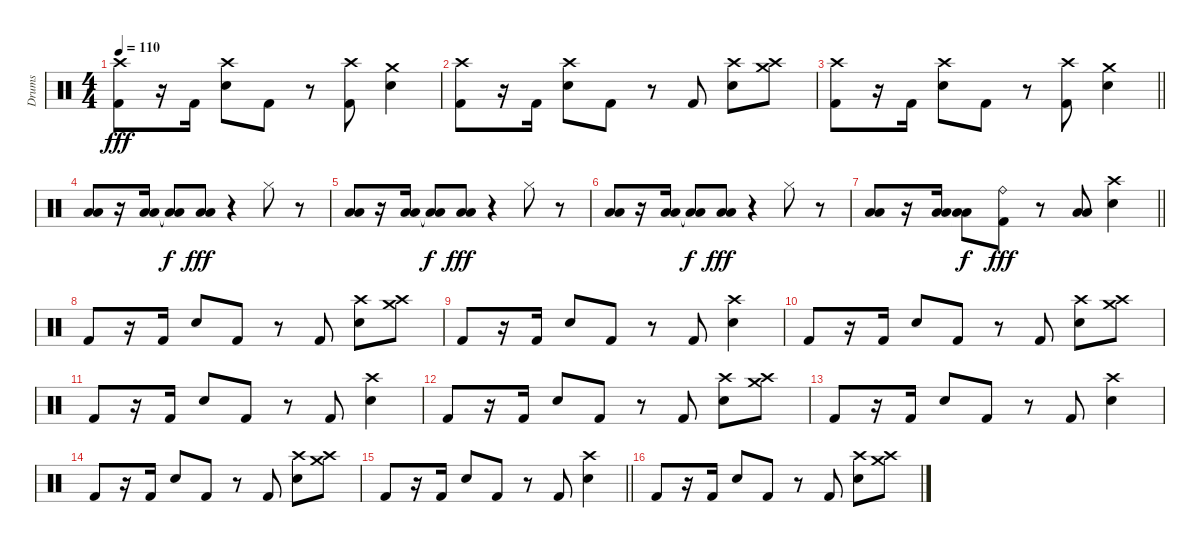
\track ("Drums" "Drums") {instrument percussion}
\staff {score}
\articulation defaults
\ts (4 4)
\tempo 110
\clef neutral
\ks c
("Crash high (hit)" "Kick (hit) 2").8{dy fff} r.16 "Kick (hit) 2".16 ("Crash high (hit)" "Electric Snare (hit)").8 "Kick (hit) 2".8 r.8 ("Crash high (hit)" "Kick (hit) 2").8 ("Crash medium (hit)" "Electric Snare (hit)").4 |
("Crash high (hit)" "Kick (hit) 2").8 r.16 "Kick (hit) 2".16 ("Crash high (hit)" "Electric Snare (hit)").8 "Kick (hit) 2".8 r.8 "Kick (hit) 2".8 ("Crash high (hit)" "Electric Snare (hit)").8 ("Crash high (hit)" "Crash medium (hit)").8 |
\barLineRight lightlight
("Crash high (hit)" "Kick (hit) 2").8 r.16 "Kick (hit) 2".16 ("Crash high (hit)" "Electric Snare (hit)").8 "Kick (hit) 2".8 r.8 ("Crash high (hit)" "Kick (hit) 2").8 ("Crash medium (hit)" "Electric Snare (hit)").4 |
("Low Tom (hit)" "Low Floor Tom (hit)").8 r.16 ("Low Tom (hit)" "Low Floor Tom (hit)").16 ("Low Tom (hit)"{t} "Low Floor Tom (hit)"{t}).8{dy f} ("Low Tom (hit)" "Low Floor Tom (hit)").8{dy fff} r.4 "Hi-Hat (closed)".8 r.8 |
("Low Tom (hit)" "Low Floor Tom (hit)").8 r.16 ("Low Tom (hit)" "Low Floor Tom (hit)").16 ("Low Tom (hit)"{t} "Low Floor Tom (hit)"{t}).8{dy f} ("Low Tom (hit)" "Low Floor Tom (hit)").8{dy fff} r.4 "Hi-Hat (closed)".8 r.8 |
("Low Tom (hit)" "Low Floor Tom (hit)").8 r.16 ("Low Tom (hit)" "Low Floor Tom (hit)").16 ("Low Tom (hit)"{t} "Low Floor Tom (hit)"{t}).8{dy f} ("Low Tom (hit)" "Low Floor Tom (hit)").8{dy fff} r.4 "Hi-Hat (closed)".8 r.8 |
\barLineRight lightlight
("Low Tom (hit)" "Low Floor Tom (hit)").8 r.16 ("Low Tom (hit)" "Low Floor Tom (hit)").16 ("Low Tom (hit)"{t} "Low Floor Tom (hit)"{t}).8{dy f} ("Ride (bell)" "Kick (hit) 2").8{dy fff} r.8 ("Low Tom (hit)" "Low Floor Tom (hit)").8 ("Crash high (hit)" "Electric Snare (hit)").4 |
"Kick (hit) 2".8 r.16 "Kick (hit) 2".16 "Electric Snare (hit)".8 "Kick (hit) 2".8 r.8 "Kick (hit) 2".8 ("Crash high (hit)" "Electric Snare (hit)").8 ("Crash high (hit)" "Crash medium (hit)").8 |
"Kick (hit) 2".8 r.16 "Kick (hit) 2".16 "Electric Snare (hit)".8 "Kick (hit) 2".8 r.8 "Kick (hit) 2".8 ("Crash high (hit)" "Electric Snare (hit)").4 |
"Kick (hit) 2".8 r.16 "Kick (hit) 2".16 "Electric Snare (hit)".8 "Kick (hit) 2".8 r.8 "Kick (hit) 2".8 ("Crash high (hit)" "Electric Snare (hit)").8 ("Crash high (hit)" "Crash medium (hit)").8 |
"Kick (hit) 2".8 r.16 "Kick (hit) 2".16 "Electric Snare (hit)".8 "Kick (hit) 2".8 r.8 "Kick (hit) 2".8 ("Crash high (hit)" "Electric Snare (hit)").4 |
"Kick (hit) 2".8 r.16 "Kick (hit) 2".16 "Electric Snare (hit)".8 "Kick (hit) 2".8 r.8 "Kick (hit) 2".8 ("Crash high (hit)" "Electric Snare (hit)").8 ("Crash high (hit)" "Crash medium (hit)").8 |
"Kick (hit) 2".8 r.16 "Kick (hit) 2".16 "Electric Snare (hit)".8 "Kick (hit) 2".8 r.8 "Kick (hit) 2".8 ("Crash high (hit)" "Electric Snare (hit)").4 |
"Kick (hit) 2".8 r.16 "Kick (hit) 2".16 "Electric Snare (hit)".8 "Kick (hit) 2".8 r.8 "Kick (hit) 2".8 ("Crash high (hit)" "Electric Snare (hit)").8 ("Crash high (hit)" "Crash medium (hit)").8 |
\barLineRight lightlight "Kick (hit) 2".8
r.16 "Kick (hit) 2".16 "Electric Snare (hit)".8 "Kick (hit) 2".8 r.8 "Kick (hit) 2".8 ("Crash high (hit)" "Electric Snare (hit)").4 |
"Kick (hit) 2".8 r.16 "Kick (hit) 2".16 "Electric Snare (hit)".8 "Kick (hit) 2".8 r.8 "Kick (hit) 2".8 ("Crash high (hit)" "Electric Snare (hit)").8 ("Crash high (hit)" "Crash medium (hit)").8
